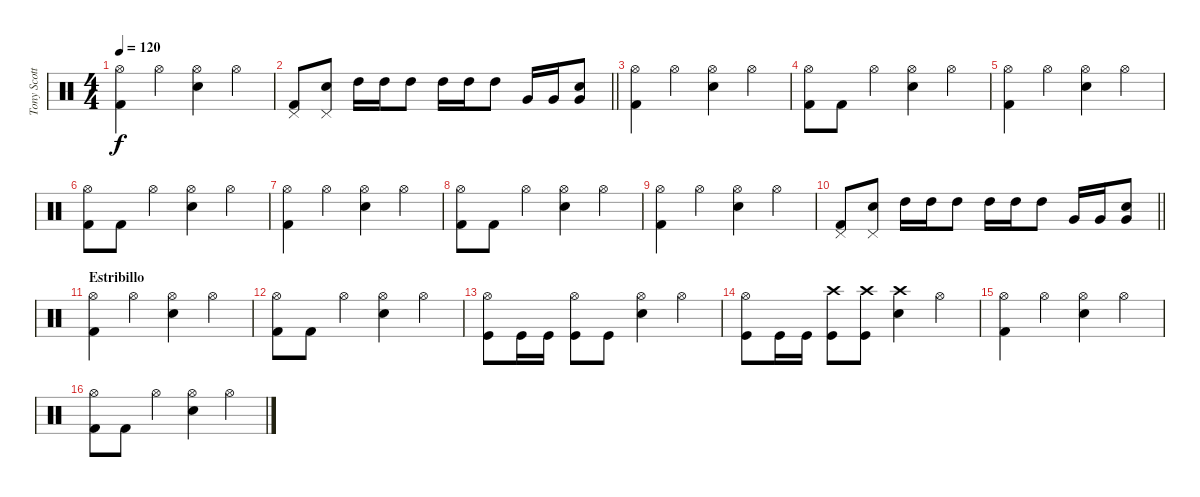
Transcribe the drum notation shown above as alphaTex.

\track ("Tony Scotto" "Tony Scott") {instrument percussion}
\staff {score}
\articulation defaults
\ts (4 4)
\tempo 120
\clef neutral
\ks c
("Hi-Hat (open)" "Kick (hit) 2").4{dy f} "Hi-Hat (open)".4 ("Hi-Hat (open)" "Snare (hit) 2").4 "Hi-Hat (open)".4 |
\barLineRight lightlight
("Pedal Hi-Hat (hit)" "Kick (hit) 2").8 ("Pedal Hi-Hat (hit)" "Snare (hit) 2").8 "High Tom (hit)".16 "High Tom (hit)".16 "High Tom (hit)".8 "High Tom (hit)".16 "High Tom (hit)".16 "High Tom (hit)".8 "Very Low Tom (hit)".16 "Very Low Tom (hit)".16 ("Very Low Tom (hit)" "Snare (hit) 2").8 |
("Hi-Hat (open)" "Kick (hit) 2").4 "Hi-Hat (open)".4 ("Hi-Hat (open)" "Snare (hit) 2").4 "Hi-Hat (open)".4 |
("Hi-Hat (open)" "Kick (hit) 2").8 "Kick (hit) 2".8 "Hi-Hat (open)".4 ("Hi-Hat (open)" "Snare (hit) 2").4 "Hi-Hat (open)".4 |
("Hi-Hat (open)" "Kick (hit) 2").4 "Hi-Hat (open)".4 ("Hi-Hat (open)" "Snare (hit) 2").4 "Hi-Hat (open)".4 |
("Hi-Hat (open)" "Kick (hit) 2").8 "Kick (hit) 2".8 "Hi-Hat (open)".4 ("Hi-Hat (open)" "Snare (hit) 2").4 "Hi-Hat (open)".4 |
("Hi-Hat (open)" "Kick (hit) 2").4 "Hi-Hat (open)".4 ("Hi-Hat (open)" "Snare (hit) 2").4 "Hi-Hat (open)".4 |
("Hi-Hat (open)" "Kick (hit) 2").8 "Kick (hit) 2".8 "Hi-Hat (open)".4 ("Hi-Hat (open)" "Snare (hit) 2").4 "Hi-Hat (open)".4 |
("Hi-Hat (open)" "Kick (hit) 2").4 "Hi-Hat (open)".4 ("Hi-Hat (open)" "Snare (hit) 2").4 "Hi-Hat (open)".4 |
\barLineRight lightlight
("Pedal Hi-Hat (hit)" "Kick (hit) 2").8 ("Pedal Hi-Hat (hit)" "Snare (hit) 2").8 "High Tom (hit)".16 "High Tom (hit)".16 "High Tom (hit)".8 "High Tom (hit)".16 "High Tom (hit)".16 "High Tom (hit)".8 "Very Low Tom (hit)".16 "Very Low Tom (hit)".16 ("Very Low Tom (hit)" "Snare (hit) 2").8 |
\section ("" "Estribillo")
("Hi-Hat (open)" "Kick (hit) 2").4 "Hi-Hat (open)".4 ("Hi-Hat (open)" "Snare (hit) 2").4 "Hi-Hat (open)".4 |
("Hi-Hat (open)" "Kick (hit) 2").8 "Kick (hit) 2".8 "Hi-Hat (open)".4 ("Hi-Hat (open)" "Snare (hit) 2").4 "Hi-Hat (open)".4 |
("Hi-Hat (open)" "Kick (hit)").8 "Kick (hit)".16 "Kick (hit)".16 ("Hi-Hat (open)" "Kick (hit)").8 "Kick (hit)".8 ("Hi-Hat (open)" "Snare (hit) 2").4 "Hi-Hat (open)".4 |
("Hi-Hat (open)" "Kick (hit)").8 "Kick (hit)".16 "Kick (hit)".16 ("Crash high (hit)" "Kick (hit)").8 ("Crash high (hit)" "Kick (hit)").8 ("Crash high (hit)" "Snare (hit) 2").4 "Hi-Hat (open)".4 |
("Hi-Hat (open)" "Kick (hit) 2").4 "Hi-Hat (open)".4 ("Hi-Hat (open)" "Snare (hit) 2").4 "Hi-Hat (open)".4 |
("Hi-Hat (open)" "Kick (hit) 2").8 "Kick (hit) 2".8 "Hi-Hat (open)".4 ("Hi-Hat (open)" "Snare (hit) 2").4 "Hi-Hat (open)".4
